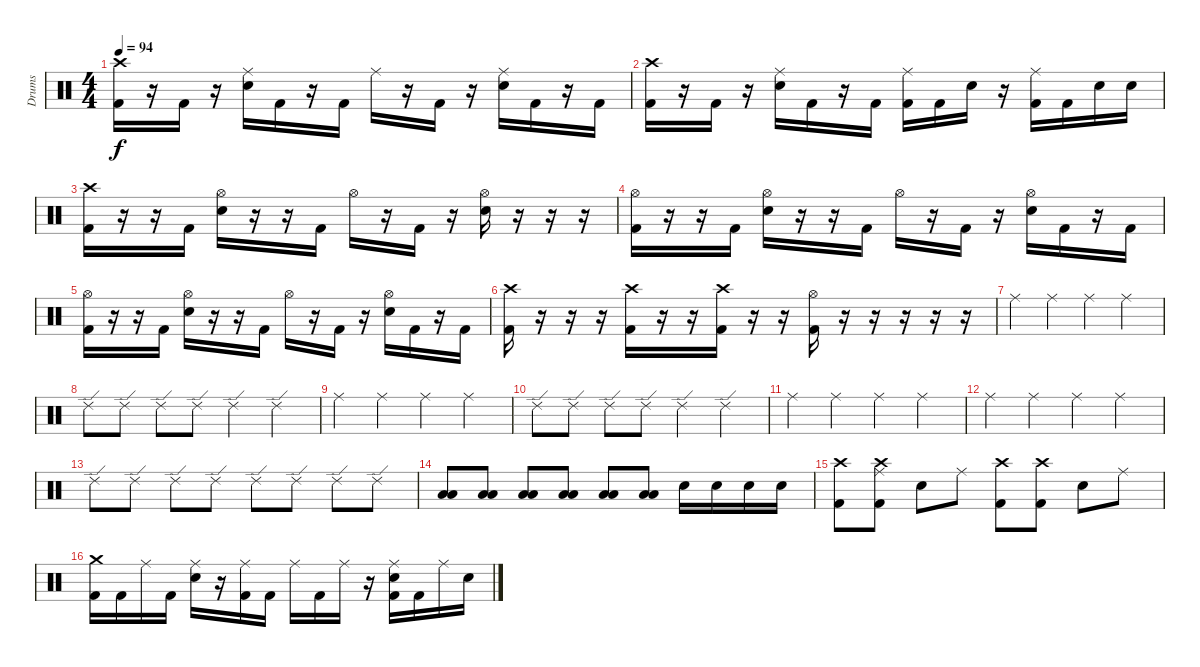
\track ("Drums" "Drums") {instrument percussion}
\staff {score}
\articulation defaults
\ts (4 4)
\tempo 94
\clef neutral
\ks c
("Crash high (hit)" "Kick (hit) 2").16{dy f} r.16 "Kick (hit) 2".16 r.16 ("Ride (middle)" "Snare (hit) 2").16 "Kick (hit) 2".16 r.16 "Kick (hit) 2".16 "Ride (middle)".16 r.16 "Kick (hit) 2".16 r.16 ("Ride (middle)" "Snare (hit) 2").16 "Kick (hit) 2".16 r.16 "Kick (hit) 2".16 |
("Crash high (hit)" "Kick (hit) 2").16 r.16 "Kick (hit) 2".16 r.16 ("Ride (middle)" "Snare (hit) 2").16 "Kick (hit) 2".16 r.16 "Kick (hit) 2".16 ("Ride (middle)" "Kick (hit) 2").16 "Kick (hit) 2".16 "Snare (hit) 2".16 r.16 ("Ride (middle)" "Kick (hit) 2").16 "Kick (hit) 2".16 "Snare (hit) 2".16 "Snare (hit) 2".16 |
("Crash high (hit)" "Kick (hit) 2").16 r.16 r.16 "Kick (hit) 2".16 ("Hi-Hat (open)" "Snare (hit) 2").16 r.16 r.16 "Kick (hit) 2".16 "Hi-Hat (open)".16 r.16 "Kick (hit) 2".16 r.16 ("Hi-Hat (open)" "Snare (hit) 2").16 r.16 r.16 r.16 |
("Hi-Hat (open)" "Kick (hit) 2").16 r.16 r.16 "Kick (hit) 2".16 ("Hi-Hat (open)" "Snare (hit) 2").16 r.16 r.16 "Kick (hit) 2".16 "Hi-Hat (open)".16 r.16 "Kick (hit) 2".16 r.16 ("Hi-Hat (open)" "Snare (hit) 2").16 "Kick (hit) 2".16 r.16 "Kick (hit) 2".16 |
("Hi-Hat (open)" "Kick (hit) 2").16 r.16 r.16 "Kick (hit) 2".16 ("Hi-Hat (open)" "Snare (hit) 2").16 r.16 r.16 "Kick (hit) 2".16 "Hi-Hat (open)".16 r.16 "Kick (hit) 2".16 r.16 ("Hi-Hat (open)" "Snare (hit) 2").16 "Kick (hit) 2".16 r.16 "Kick (hit) 2".16 |
("Crash high (hit)" "Kick (hit) 2").16 r.16 r.16 r.16 ("Crash high (hit)" "Kick (hit) 2").16 r.16 r.16 ("Crash high (hit)" "Kick (hit) 2").16 r.16 r.16 ("Hi-Hat (open)" "Kick (hit) 2").16 r.16 r.16 r.16 r.16 r.16 |
"Ride (middle)".4 "Ride (middle)".4 "Ride (middle)".4 "Ride (middle)".4 |
"Ride (edge) 2".8 "Ride (edge) 2".8 "Ride (edge) 2".8 "Ride (edge) 2".8 "Ride (edge) 2".4 "Ride (edge) 2".4 |
"Ride (middle)".4 "Ride (middle)".4 "Ride (middle)".4 "Ride (middle)".4 |
"Ride (edge) 2".8 "Ride (edge) 2".8 "Ride (edge) 2".8 "Ride (edge) 2".8 "Ride (edge) 2".4 "Ride (edge) 2".4 |
"Ride (middle)".4 "Ride (middle)".4 "Ride (middle)".4 "Ride (middle)".4 |
"Ride (middle)".4 "Ride (middle)".4 "Ride (middle)".4 "Ride (middle)".4 |
"Ride (edge) 2".8 "Ride (edge) 2".8 "Ride (edge) 2".8 "Ride (edge) 2".8 "Ride (edge) 2".8 "Ride (edge) 2".8 "Ride (edge) 2".8 "Ride (edge) 2".8 |
("Low Tom (hit)" "Low Floor Tom (hit)").8 ("Low Tom (hit)" "Low Floor Tom (hit)").8 ("Low Tom (hit)" "Low Floor Tom (hit)").8 ("Low Tom (hit)" "Low Floor Tom (hit)").8 ("Low Tom (hit)" "Low Floor Tom (hit)").8 ("Low Tom (hit)" "Low Floor Tom (hit)").8 "Snare (hit) 2".16 "Snare (hit) 2".16 "Snare (hit) 2".16 "Snare (hit) 2".16 |
("Crash high (hit)" "Kick (hit) 2").8 ("Crash high (hit)" "Ride (middle)" "Kick (hit) 2").8 "Snare (hit) 2".8 "Ride (middle)".8 ("Crash high (hit)" "Kick (hit) 2").8 ("Crash high (hit)" "Kick (hit) 2").8 "Snare (hit) 2".8 "Ride (middle)".8 |
("Crash medium (hit)" "Kick (hit) 2").16 "Kick (hit) 2".16 "Ride (middle)".16 "Kick (hit) 2".16 ("Snare (hit) 2" "Ride (middle)").16 r.16 ("Ride (middle)" "Kick (hit) 2").16 "Kick (hit) 2".16 "Ride (middle)".16 "Kick (hit) 2".16 "Ride (middle)".16 r.16 ("Snare (hit) 2" "Ride (middle)" "Kick (hit) 2").16 "Kick (hit) 2".16 "Ride (middle)".16 "Snare (hit) 2".16
